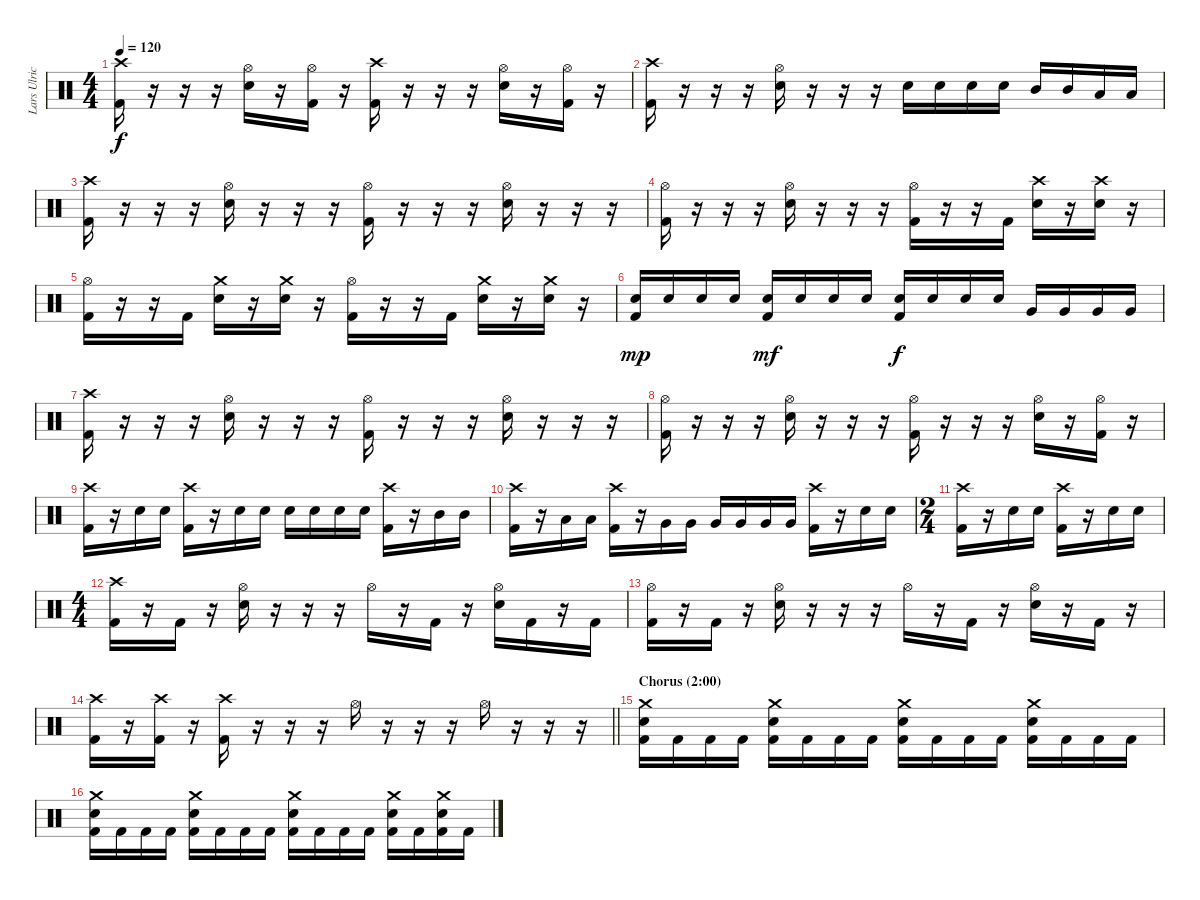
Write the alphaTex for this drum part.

\track ("Lars Ulrich" "Lars Ulric") {instrument percussion}
\staff {score}
\articulation defaults
\ts (4 4)
\tempo 120
\clef neutral
\ks c
("Crash high (hit)" "Kick (hit) 2").16{dy f} r.16 r.16 r.16 ("Electric Snare (hit)" "Hi-Hat (open)").16 r.16 ("Hi-Hat (open)" "Kick (hit) 2").16 r.16 ("Crash high (hit)" "Kick (hit) 2").16 r.16 r.16 r.16 ("Electric Snare (hit)" "Hi-Hat (open)").16 r.16 ("Hi-Hat (open)" "Kick (hit) 2").16 r.16 |
("Crash high (hit)" "Kick (hit) 2").16 r.16 r.16 r.16 ("Electric Snare (hit)" "Hi-Hat (open)").16 r.16 r.16 r.16 "Electric Snare (hit)".16 "Electric Snare (hit)".16 "Electric Snare (hit)".16 "Electric Snare (hit)".16 "Mid Tom (hit)".16 "Mid Tom (hit)".16 "Low Tom (hit)".16 "Low Tom (hit)".16 |
("Crash high (hit)" "Kick (hit) 2").16 r.16 r.16 r.16 ("Electric Snare (hit)" "Hi-Hat (open)").16 r.16 r.16 r.16 ("Hi-Hat (open)" "Kick (hit) 2").16 r.16 r.16 r.16 ("Electric Snare (hit)" "Hi-Hat (open)").16 r.16 r.16 r.16 |
("Hi-Hat (open)" "Kick (hit) 2").16 r.16 r.16 r.16 ("Electric Snare (hit)" "Hi-Hat (open)").16 r.16 r.16 r.16 ("Hi-Hat (open)" "Kick (hit) 2").16 r.16 r.16 "Kick (hit) 2".16 ("Crash high (hit)" "Electric Snare (hit)").16 r.16 ("Crash high (hit)" "Electric Snare (hit)").16 r.16 |
("Hi-Hat (open)" "Kick (hit) 2").16 r.16 r.16 "Kick (hit) 2".16 ("Electric Snare (hit)" "Crash medium (hit)").16 r.16 ("Electric Snare (hit)" "Crash medium (hit)").16 r.16 ("Hi-Hat (open)" "Kick (hit) 2").16 r.16 r.16 "Kick (hit) 2".16 ("Electric Snare (hit)" "Crash medium (hit)").16 r.16 ("Electric Snare (hit)" "Crash medium (hit)").16 r.16 |
("Electric Snare (hit)" "Kick (hit) 2").16{dy mp} "Electric Snare (hit)".16 "Electric Snare (hit)".16 "Electric Snare (hit)".16 ("Electric Snare (hit)" "Kick (hit) 2").16{dy mf} "Electric Snare (hit)".16 "Electric Snare (hit)".16 "Electric Snare (hit)".16 ("Electric Snare (hit)" "Kick (hit) 2").16{dy f} "Electric Snare (hit)".16 "Electric Snare (hit)".16 "Electric Snare (hit)".16 "Very Low Tom (hit)".16 "Very Low Tom (hit)".16 "Very Low Tom (hit)".16 "Very Low Tom (hit)".16 |
("Crash high (hit)" "Kick (hit) 2").16 r.16 r.16 r.16 ("Electric Snare (hit)" "Hi-Hat (open)").16 r.16 r.16 r.16 ("Hi-Hat (open)" "Kick (hit) 2").16 r.16 r.16 r.16 ("Electric Snare (hit)" "Hi-Hat (open)").16 r.16 r.16 r.16 |
("Hi-Hat (open)" "Kick (hit) 2").16 r.16 r.16 r.16 ("Electric Snare (hit)" "Hi-Hat (open)").16 r.16 r.16 r.16 ("Hi-Hat (open)" "Kick (hit) 2").16 r.16 r.16 r.16 ("Electric Snare (hit)" "Hi-Hat (open)").16 r.16 ("Hi-Hat (open)" "Kick (hit) 2").16 r.16 |
("Crash high (hit)" "Kick (hit) 2").16 r.16 "Electric Snare (hit)".16 "Electric Snare (hit)".16 ("Crash high (hit)" "Kick (hit) 2").16 r.16 "Electric Snare (hit)".16 "Electric Snare (hit)".16 "Electric Snare (hit)".16 "Electric Snare (hit)".16 "Electric Snare (hit)".16 "Electric Snare (hit)".16 ("Crash high (hit)" "Kick (hit) 2").16 r.16 "Mid Tom (hit)".16 "Mid Tom (hit)".16 |
("Crash high (hit)" "Kick (hit) 2").16 r.16 "Low Tom (hit)".16 "Low Tom (hit)".16 ("Crash high (hit)" "Kick (hit) 2").16 r.16 "Very Low Tom (hit)".16 "Very Low Tom (hit)".16 "Very Low Tom (hit)".16 "Very Low Tom (hit)".16 "Very Low Tom (hit)".16 "Very Low Tom (hit)".16 ("Crash high (hit)" "Kick (hit) 2").16 r.16 "Electric Snare (hit)".16 "Electric Snare (hit)".16 |
\ts (2 4)
("Crash high (hit)" "Kick (hit) 2").16 r.16 "Electric Snare (hit)".16 "Electric Snare (hit)".16 ("Crash high (hit)" "Kick (hit) 2").16 r.16 "Electric Snare (hit)".16 "Electric Snare (hit)".16 |
\ts (4 4)
("Crash high (hit)" "Kick (hit) 2").16 r.16 "Kick (hit) 2".16 r.16 ("Electric Snare (hit)" "Hi-Hat (open)").16 r.16 r.16 r.16 "Hi-Hat (open)".16 r.16 "Kick (hit) 2".16 r.16 ("Electric Snare (hit)" "Hi-Hat (open)").16 "Kick (hit) 2".16 r.16 "Kick (hit) 2".16 |
("Hi-Hat (open)" "Kick (hit) 2").16 r.16 "Kick (hit) 2".16 r.16 ("Electric Snare (hit)" "Hi-Hat (open)").16 r.16 r.16 r.16 "Hi-Hat (open)".16 r.16 "Kick (hit) 2".16 r.16 ("Electric Snare (hit)" "Hi-Hat (open)").16 r.16 "Kick (hit) 2".16 r.16 |
\barLineRight lightlight
("Crash high (hit)" "Kick (hit) 2").16 r.16 ("Crash high (hit)" "Kick (hit) 2").16 r.16 ("Crash high (hit)" "Kick (hit) 2").16 r.16 r.16 r.16 "Hi-Hat (open)".16 r.16 r.16 r.16 "Hi-Hat (open)".16 r.16 r.16 r.16 |
\section ("" "Chorus (2:00)")
("Electric Snare (hit)" "Crash medium (hit)" "Kick (hit) 2").16 "Kick (hit) 2".16 "Kick (hit) 2".16 "Kick (hit) 2".16 ("Electric Snare (hit)" "Crash medium (hit)" "Kick (hit) 2").16 "Kick (hit) 2".16 "Kick (hit) 2".16 "Kick (hit) 2".16 ("Electric Snare (hit)" "Crash medium (hit)" "Kick (hit) 2").16 "Kick (hit) 2".16 "Kick (hit) 2".16 "Kick (hit) 2".16 ("Electric Snare (hit)" "Crash medium (hit)" "Kick (hit) 2").16 "Kick (hit) 2".16 "Kick (hit) 2".16 "Kick (hit) 2".16 |
("Electric Snare (hit)" "Crash medium (hit)" "Kick (hit) 2").16 "Kick (hit) 2".16 "Kick (hit) 2".16 "Kick (hit) 2".16 ("Electric Snare (hit)" "Crash medium (hit)" "Kick (hit) 2").16 "Kick (hit) 2".16 "Kick (hit) 2".16 "Kick (hit) 2".16 ("Electric Snare (hit)" "Crash medium (hit)" "Kick (hit) 2").16 "Kick (hit) 2".16 "Kick (hit) 2".16 "Kick (hit) 2".16 ("Electric Snare (hit)" "Crash medium (hit)" "Kick (hit) 2").16 "Kick (hit) 2".16 ("Electric Snare (hit)" "Crash medium (hit)" "Kick (hit) 2").16 "Kick (hit) 2".16
